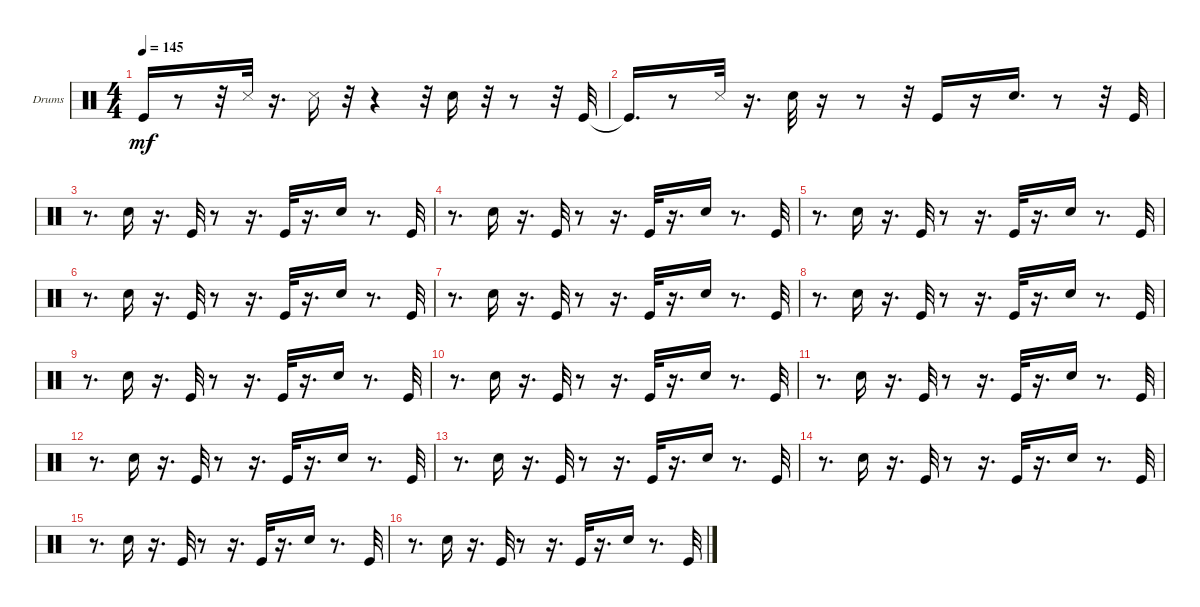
\bracketExtendMode groupsimilarinstruments
\firstSystemTrackNameOrientation horizontal
\otherSystemsTrackNameOrientation horizontal
\track ("Drums" "Drums") {instrument percussion}
\staff {score}
\articulation defaults
\ts (4 4)
\tempo 145
\clef neutral
\ks c "Kick (hit)"{t}.16{dy mf}
r.8 r.32 "Snare (side stick) 3".32 r.16{d} "Snare (side stick) 3".16 r.32 r.4 r.32 "Snare (hit) 2".16 r.32 r.8 r.32 "Kick (hit)".32 |
"Kick (hit)"{t}.16{d} r.8 "Snare (side stick) 3".32 r.16{d} "Snare (hit) 2".32 r.16 r.8 r.32 "Kick (hit)".16 r.16 "Snare (hit) 2".16{d} r.8 r.32 "Kick (hit)".32 |
r.8{d} "Snare (hit) 2".16 r.16{d} "Kick (hit)".32 r.8 r.16{d} "Kick (hit)".32 r.16{d} "Snare (hit) 2".16 r.8{d} "Kick (hit)".32 |
r.8{d} "Snare (hit) 2".16 r.16{d} "Kick (hit)".32 r.8 r.16{d} "Kick (hit)".32 r.16{d} "Snare (hit) 2".16 r.8{d} "Kick (hit)".32 |
r.8{d} "Snare (hit) 2".16 r.16{d} "Kick (hit)".32 r.8 r.16{d} "Kick (hit)".32 r.16{d} "Snare (hit) 2".16 r.8{d} "Kick (hit)".32 |
r.8{d} "Snare (hit) 2".16 r.16{d} "Kick (hit)".32 r.8 r.16{d} "Kick (hit)".32 r.16{d} "Snare (hit) 2".16 r.8{d} "Kick (hit)".32 |
r.8{d} "Snare (hit) 2".16 r.16{d} "Kick (hit)".32 r.8 r.16{d} "Kick (hit)".32 r.16{d} "Snare (hit) 2".16 r.8{d} "Kick (hit)".32 |
r.8{d} "Snare (hit) 2".16 r.16{d} "Kick (hit)".32 r.8 r.16{d} "Kick (hit)".32 r.16{d} "Snare (hit) 2".16 r.8{d} "Kick (hit)".32 |
r.8{d} "Snare (hit) 2".16 r.16{d} "Kick (hit)".32 r.8 r.16{d} "Kick (hit)".32 r.16{d} "Snare (hit) 2".16 r.8{d} "Kick (hit)".32 |
r.8{d} "Snare (hit) 2".16 r.16{d} "Kick (hit)".32 r.8 r.16{d} "Kick (hit)".32 r.16{d} "Snare (hit) 2".16 r.8{d} "Kick (hit)".32 |
r.8{d} "Snare (hit) 2".16 r.16{d} "Kick (hit)".32 r.8 r.16{d} "Kick (hit)".32 r.16{d} "Snare (hit) 2".16 r.8{d} "Kick (hit)".32 |
r.8{d} "Snare (hit) 2".16 r.16{d} "Kick (hit)".32 r.8 r.16{d} "Kick (hit)".32 r.16{d} "Snare (hit) 2".16 r.8{d} "Kick (hit)".32 |
r.8{d} "Snare (hit) 2".16 r.16{d} "Kick (hit)".32 r.8 r.16{d} "Kick (hit)".32 r.16{d} "Snare (hit) 2".16 r.8{d} "Kick (hit)".32 |
r.8{d} "Snare (hit) 2".16 r.16{d} "Kick (hit)".32 r.8 r.16{d} "Kick (hit)".32 r.16{d} "Snare (hit) 2".16 r.8{d} "Kick (hit)".32 |
r.8{d} "Snare (hit) 2".16 r.16{d} "Kick (hit)".32 r.8 r.16{d} "Kick (hit)".32 r.16{d} "Snare (hit) 2".16 r.8{d} "Kick (hit)".32 |
r.8{d} "Snare (hit) 2".16 r.16{d} "Kick (hit)".32 r.8 r.16{d} "Kick (hit)".32 r.16{d} "Snare (hit) 2".16 r.8{d} "Kick (hit)".32
